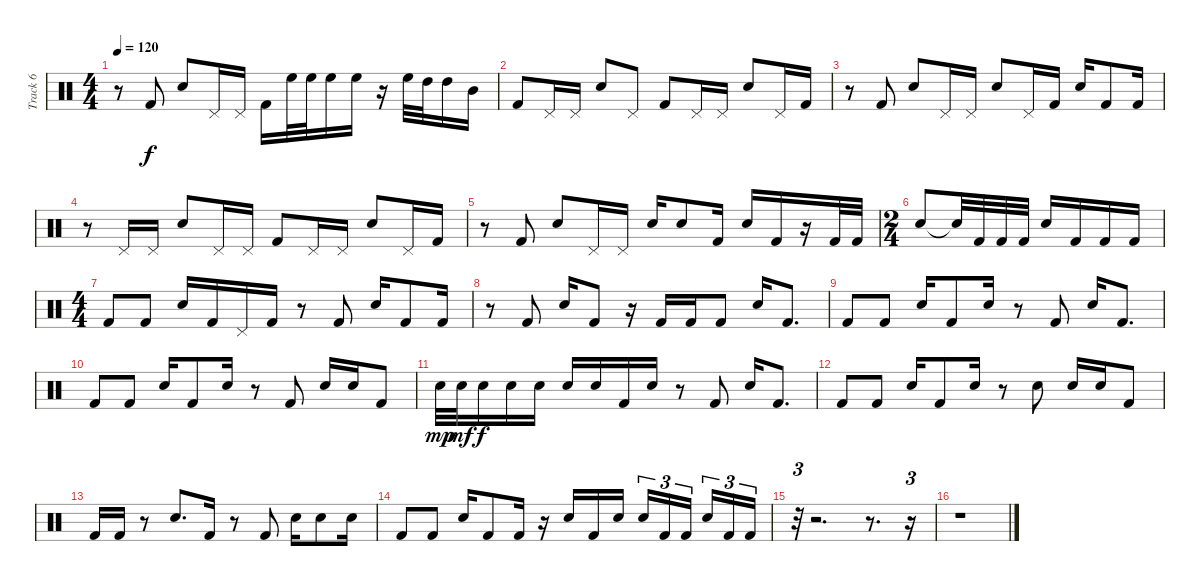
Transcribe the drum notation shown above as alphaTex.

\track ("Track 6" "Track 6") {instrument percussion}
\staff {score}
\articulation defaults
\ts (4 4)
\tempo 120
\clef neutral
\ks c
r.8{dy f} "Kick (hit) 2".8 "Electric Snare (hit)".8 "Pedal Hi-Hat (hit)".16 "Pedal Hi-Hat (hit)".16 "Kick (hit) 2".16 "High Floor Tom (hit)".32 "High Floor Tom (hit)".32 "High Floor Tom (hit)".16 "High Floor Tom (hit)".16 r.16 "High Floor Tom (hit)".32 "High Tom (hit)".32 "High Tom (hit)".16 "Mid Tom (hit)".16 |
"Kick (hit) 2".8 "Pedal Hi-Hat (hit)".16 "Pedal Hi-Hat (hit)".16 "Electric Snare (hit)".8 "Pedal Hi-Hat (hit)".8 "Kick (hit) 2".8 "Pedal Hi-Hat (hit)".16 "Pedal Hi-Hat (hit)".16 "Electric Snare (hit)".8 "Pedal Hi-Hat (hit)".16 "Kick (hit) 2".16 |
r.8 "Kick (hit) 2".8 "Electric Snare (hit)".8 "Pedal Hi-Hat (hit)".16 "Pedal Hi-Hat (hit)".16 "Electric Snare (hit)".8 "Pedal Hi-Hat (hit)".16 "Kick (hit) 2".16 "Electric Snare (hit)".16 "Kick (hit) 2".8 "Kick (hit) 2".16 |
r.8 "Pedal Hi-Hat (hit)".16 "Pedal Hi-Hat (hit)".16 "Electric Snare (hit)".8 "Pedal Hi-Hat (hit)".16 "Pedal Hi-Hat (hit)".16 "Kick (hit) 2".8 "Pedal Hi-Hat (hit)".16 "Pedal Hi-Hat (hit)".16 "Electric Snare (hit)".8 "Pedal Hi-Hat (hit)".16 "Kick (hit) 2".16 |
r.8 "Kick (hit) 2".8 "Electric Snare (hit)".8 "Pedal Hi-Hat (hit)".16 "Pedal Hi-Hat (hit)".16 "Electric Snare (hit)".16 "Electric Snare (hit)".8 "Kick (hit) 2".16 "Electric Snare (hit)".16 "Kick (hit) 2".16 r.16 "Kick (hit) 2".32 "Kick (hit) 2".32 |
\ts (2 4)
"Electric Snare (hit)".8 "Snare (hit)"{t}.32 "Kick (hit) 2".32 "Kick (hit) 2".32 "Kick (hit) 2".32 "Electric Snare (hit)".16 "Kick (hit) 2".16 "Kick (hit) 2".16 "Kick (hit) 2".16 |
\ts (4 4)
"Kick (hit) 2".8 "Kick (hit) 2".8 "Electric Snare (hit)".16 "Kick (hit) 2".16 "Pedal Hi-Hat (hit)".16 "Kick (hit) 2".16 r.8 "Kick (hit) 2".8 "Electric Snare (hit)".16 "Kick (hit) 2".8 "Kick (hit) 2".16 |
r.8 "Kick (hit) 2".8 "Electric Snare (hit)".16 "Kick (hit) 2".8 r.16 "Kick (hit) 2".16 "Kick (hit) 2".16 "Kick (hit) 2".8 "Electric Snare (hit)".16 "Kick (hit) 2".8{d} |
"Kick (hit) 2".8 "Kick (hit) 2".8 "Electric Snare (hit)".16 "Kick (hit) 2".8 "Electric Snare (hit)".16 r.8 "Kick (hit) 2".8 "Electric Snare (hit)".16 "Kick (hit) 2".8{d} |
"Kick (hit) 2".8 "Kick (hit) 2".8 "Electric Snare (hit)".16 "Kick (hit) 2".8 "Electric Snare (hit)".16 r.8 "Kick (hit) 2".8 "Electric Snare (hit)".16 "Electric Snare (hit)".16 "Kick (hit) 2".8 |
"Electric Snare (hit)".32{dy mp} "Electric Snare (hit)".32{dy mf} "Electric Snare (hit)".16{dy f} "Electric Snare (hit)".16 "Electric Snare (hit)".16 "Electric Snare (hit)".16 "Electric Snare (hit)".16 "Kick (hit) 2".16 "Electric Snare (hit)".16 r.8 "Kick (hit) 2".8 "Electric Snare (hit)".16 "Kick (hit) 2".8{d} |
"Kick (hit) 2".8 "Kick (hit) 2".8 "Electric Snare (hit)".16 "Kick (hit) 2".8 "Electric Snare (hit)".16 r.8 "Electric Snare (hit)".8 "Electric Snare (hit)".16 "Electric Snare (hit)".16 "Kick (hit) 2".8 |
"Kick (hit) 2".16 "Kick (hit) 2".16 r.8 "Electric Snare (hit)".8{d} "Kick (hit) 2".16 r.8 "Kick (hit) 2".8 "Electric Snare (hit)".16 "Electric Snare (hit)".8 "Electric Snare (hit)".16 |
"Kick (hit) 2".8 "Kick (hit) 2".8 "Electric Snare (hit)".16 "Kick (hit) 2".8 "Kick (hit) 2".16 r.16 "Electric Snare (hit)".16 "Kick (hit) 2".16 "Electric Snare (hit)".16 "Electric Snare (hit)".16{tu (3 2)} "Kick (hit) 2".16{tu (3 2)} "Kick (hit) 2".16{tu (3 2) beam splitsecondary} "Electric Snare (hit)".16{tu (3 2)} "Kick (hit) 2".16{tu (3 2)} "Kick (hit) 2".16{tu (3 2)} |
r.32{tu (3 2)} r.2{d} r.8{d} r.16{tu (3 2)} |
r.1
